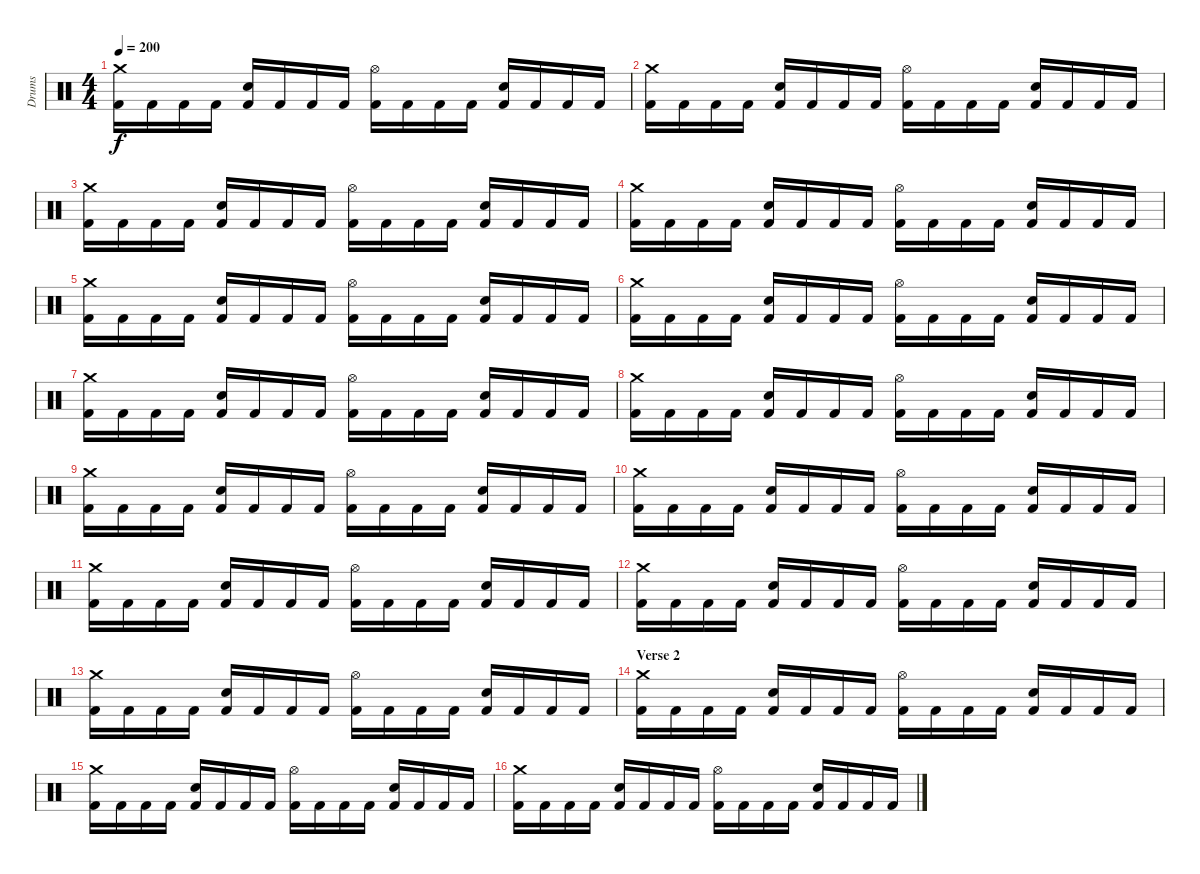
\track ("Drums" "Drums") {instrument percussion}
\staff {score}
\articulation defaults
\ts (4 4)
\tempo 200
\clef neutral
\ks c
("Kick (hit) 2" "Crash medium (hit)").16{dy f volume 13} "Kick (hit) 2".16 "Kick (hit) 2".16 "Kick (hit) 2".16 ("Kick (hit) 2" "Snare (hit) 2").16 "Kick (hit) 2".16 "Kick (hit) 2".16 "Kick (hit) 2".16 ("Kick (hit) 2" "Hi-Hat (open)").16 "Kick (hit) 2".16 "Kick (hit) 2".16 "Kick (hit) 2".16 ("Kick (hit) 2" "Snare (hit) 2").16 "Kick (hit) 2".16 "Kick (hit) 2".16 "Kick (hit) 2".16 |
("Kick (hit) 2" "Crash medium (hit)").16 "Kick (hit) 2".16 "Kick (hit) 2".16 "Kick (hit) 2".16 ("Kick (hit) 2" "Snare (hit) 2").16 "Kick (hit) 2".16 "Kick (hit) 2".16 "Kick (hit) 2".16 ("Kick (hit) 2" "Hi-Hat (open)").16 "Kick (hit) 2".16 "Kick (hit) 2".16 "Kick (hit) 2".16 ("Kick (hit) 2" "Snare (hit) 2").16 "Kick (hit) 2".16 "Kick (hit) 2".16 "Kick (hit) 2".16 |
("Kick (hit) 2" "Crash medium (hit)").16 "Kick (hit) 2".16 "Kick (hit) 2".16 "Kick (hit) 2".16 ("Kick (hit) 2" "Snare (hit) 2").16 "Kick (hit) 2".16 "Kick (hit) 2".16 "Kick (hit) 2".16 ("Kick (hit) 2" "Hi-Hat (open)").16 "Kick (hit) 2".16 "Kick (hit) 2".16 "Kick (hit) 2".16 ("Kick (hit) 2" "Snare (hit) 2").16 "Kick (hit) 2".16 "Kick (hit) 2".16 "Kick (hit) 2".16 |
("Kick (hit) 2" "Crash medium (hit)").16 "Kick (hit) 2".16 "Kick (hit) 2".16 "Kick (hit) 2".16 ("Kick (hit) 2" "Snare (hit) 2").16 "Kick (hit) 2".16 "Kick (hit) 2".16 "Kick (hit) 2".16 ("Kick (hit) 2" "Hi-Hat (open)").16 "Kick (hit) 2".16 "Kick (hit) 2".16 "Kick (hit) 2".16 ("Kick (hit) 2" "Snare (hit) 2").16 "Kick (hit) 2".16 "Kick (hit) 2".16 "Kick (hit) 2".16 |
("Kick (hit) 2" "Crash medium (hit)").16 "Kick (hit) 2".16 "Kick (hit) 2".16 "Kick (hit) 2".16 ("Kick (hit) 2" "Snare (hit) 2").16 "Kick (hit) 2".16 "Kick (hit) 2".16 "Kick (hit) 2".16 ("Kick (hit) 2" "Hi-Hat (open)").16 "Kick (hit) 2".16 "Kick (hit) 2".16 "Kick (hit) 2".16 ("Kick (hit) 2" "Snare (hit) 2").16 "Kick (hit) 2".16 "Kick (hit) 2".16 "Kick (hit) 2".16 |
("Kick (hit) 2" "Crash medium (hit)").16 "Kick (hit) 2".16 "Kick (hit) 2".16 "Kick (hit) 2".16 ("Kick (hit) 2" "Snare (hit) 2").16 "Kick (hit) 2".16 "Kick (hit) 2".16 "Kick (hit) 2".16 ("Kick (hit) 2" "Hi-Hat (open)").16 "Kick (hit) 2".16 "Kick (hit) 2".16 "Kick (hit) 2".16 ("Kick (hit) 2" "Snare (hit) 2").16 "Kick (hit) 2".16 "Kick (hit) 2".16 "Kick (hit) 2".16 |
("Kick (hit) 2" "Crash medium (hit)").16 "Kick (hit) 2".16 "Kick (hit) 2".16 "Kick (hit) 2".16 ("Kick (hit) 2" "Snare (hit) 2").16 "Kick (hit) 2".16 "Kick (hit) 2".16 "Kick (hit) 2".16 ("Kick (hit) 2" "Hi-Hat (open)").16 "Kick (hit) 2".16 "Kick (hit) 2".16 "Kick (hit) 2".16 ("Kick (hit) 2" "Snare (hit) 2").16 "Kick (hit) 2".16 "Kick (hit) 2".16 "Kick (hit) 2".16 |
("Kick (hit) 2" "Crash medium (hit)").16 "Kick (hit) 2".16 "Kick (hit) 2".16 "Kick (hit) 2".16 ("Kick (hit) 2" "Snare (hit) 2").16 "Kick (hit) 2".16 "Kick (hit) 2".16 "Kick (hit) 2".16 ("Kick (hit) 2" "Hi-Hat (open)").16 "Kick (hit) 2".16 "Kick (hit) 2".16 "Kick (hit) 2".16 ("Kick (hit) 2" "Snare (hit) 2").16 "Kick (hit) 2".16 "Kick (hit) 2".16 "Kick (hit) 2".16 |
("Kick (hit) 2" "Crash medium (hit)").16 "Kick (hit) 2".16 "Kick (hit) 2".16 "Kick (hit) 2".16 ("Kick (hit) 2" "Snare (hit) 2").16 "Kick (hit) 2".16 "Kick (hit) 2".16 "Kick (hit) 2".16 ("Kick (hit) 2" "Hi-Hat (open)").16 "Kick (hit) 2".16 "Kick (hit) 2".16 "Kick (hit) 2".16 ("Kick (hit) 2" "Snare (hit) 2").16 "Kick (hit) 2".16 "Kick (hit) 2".16 "Kick (hit) 2".16 |
("Kick (hit) 2" "Crash medium (hit)").16 "Kick (hit) 2".16 "Kick (hit) 2".16 "Kick (hit) 2".16 ("Kick (hit) 2" "Snare (hit) 2").16 "Kick (hit) 2".16 "Kick (hit) 2".16 "Kick (hit) 2".16 ("Kick (hit) 2" "Hi-Hat (open)").16 "Kick (hit) 2".16 "Kick (hit) 2".16 "Kick (hit) 2".16 ("Kick (hit) 2" "Snare (hit) 2").16 "Kick (hit) 2".16 "Kick (hit) 2".16 "Kick (hit) 2".16 |
("Kick (hit) 2" "Crash medium (hit)").16 "Kick (hit) 2".16 "Kick (hit) 2".16 "Kick (hit) 2".16 ("Kick (hit) 2" "Snare (hit) 2").16 "Kick (hit) 2".16 "Kick (hit) 2".16 "Kick (hit) 2".16 ("Kick (hit) 2" "Hi-Hat (open)").16 "Kick (hit) 2".16 "Kick (hit) 2".16 "Kick (hit) 2".16 ("Kick (hit) 2" "Snare (hit) 2").16 "Kick (hit) 2".16 "Kick (hit) 2".16 "Kick (hit) 2".16 |
("Kick (hit) 2" "Crash medium (hit)").16 "Kick (hit) 2".16 "Kick (hit) 2".16 "Kick (hit) 2".16 ("Kick (hit) 2" "Snare (hit) 2").16 "Kick (hit) 2".16 "Kick (hit) 2".16 "Kick (hit) 2".16 ("Kick (hit) 2" "Hi-Hat (open)").16 "Kick (hit) 2".16 "Kick (hit) 2".16 "Kick (hit) 2".16 ("Kick (hit) 2" "Snare (hit) 2").16 "Kick (hit) 2".16 "Kick (hit) 2".16 "Kick (hit) 2".16 |
("Kick (hit) 2" "Crash medium (hit)").16 "Kick (hit) 2".16 "Kick (hit) 2".16 "Kick (hit) 2".16 ("Kick (hit) 2" "Snare (hit) 2").16 "Kick (hit) 2".16 "Kick (hit) 2".16 "Kick (hit) 2".16 ("Kick (hit) 2" "Hi-Hat (open)").16 "Kick (hit) 2".16 "Kick (hit) 2".16 "Kick (hit) 2".16 ("Kick (hit) 2" "Snare (hit) 2").16 "Kick (hit) 2".16 "Kick (hit) 2".16 "Kick (hit) 2".16 |
\section ("" "Verse 2")
("Kick (hit) 2" "Crash medium (hit)").16 "Kick (hit) 2".16 "Kick (hit) 2".16 "Kick (hit) 2".16 ("Kick (hit) 2" "Snare (hit) 2").16 "Kick (hit) 2".16 "Kick (hit) 2".16 "Kick (hit) 2".16 ("Kick (hit) 2" "Hi-Hat (open)").16 "Kick (hit) 2".16 "Kick (hit) 2".16 "Kick (hit) 2".16 ("Kick (hit) 2" "Snare (hit) 2").16 "Kick (hit) 2".16 "Kick (hit) 2".16 "Kick (hit) 2".16 |
("Kick (hit) 2" "Crash medium (hit)").16 "Kick (hit) 2".16 "Kick (hit) 2".16 "Kick (hit) 2".16 ("Kick (hit) 2" "Snare (hit) 2").16 "Kick (hit) 2".16 "Kick (hit) 2".16 "Kick (hit) 2".16 ("Kick (hit) 2" "Hi-Hat (open)").16 "Kick (hit) 2".16 "Kick (hit) 2".16 "Kick (hit) 2".16 ("Kick (hit) 2" "Snare (hit) 2").16 "Kick (hit) 2".16 "Kick (hit) 2".16 "Kick (hit) 2".16 |
("Kick (hit) 2" "Crash medium (hit)").16 "Kick (hit) 2".16 "Kick (hit) 2".16 "Kick (hit) 2".16 ("Kick (hit) 2" "Snare (hit) 2").16 "Kick (hit) 2".16 "Kick (hit) 2".16 "Kick (hit) 2".16 ("Kick (hit) 2" "Hi-Hat (open)").16 "Kick (hit) 2".16 "Kick (hit) 2".16 "Kick (hit) 2".16 ("Kick (hit) 2" "Snare (hit) 2").16 "Kick (hit) 2".16 "Kick (hit) 2".16 "Kick (hit) 2".16
